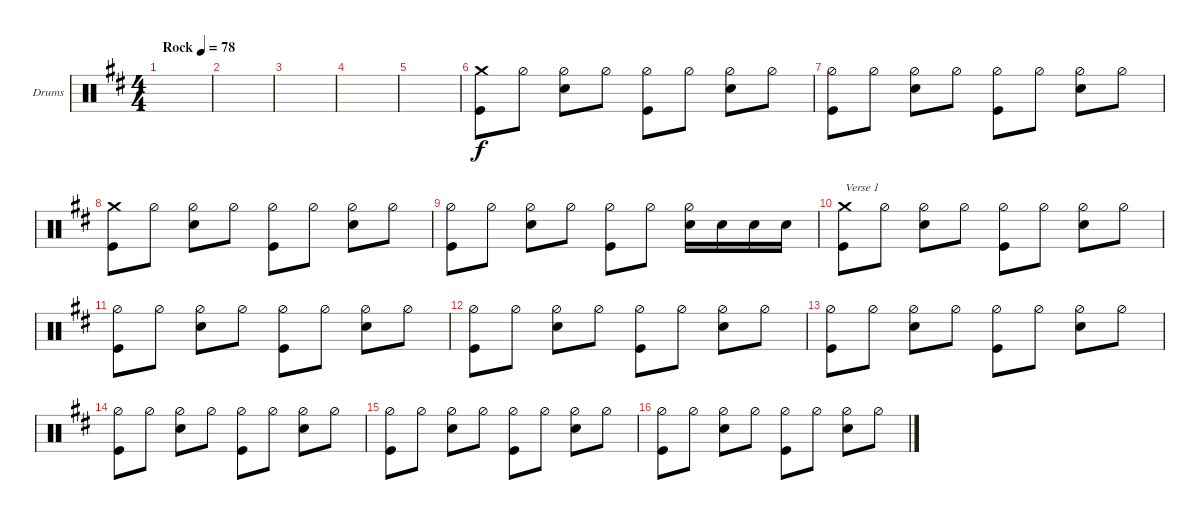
\defaultSystemsLayout 4
\bracketExtendMode groupsimilarinstruments
\firstSystemTrackNameOrientation horizontal
\otherSystemsTrackNameOrientation horizontal
\track ("Drums" "Drums") {instrument percussion}
\staff {score}
\articulation defaults
\ts (4 4)
\tempo (78 "Rock")
\clef neutral
\ks bminor
|
|
|
|
|
("Kick (hit)" "Crash medium (hit)").8 "Hi-Hat (half)".8 ("Hi-Hat (half)" "Snare (hit) 2").8 "Hi-Hat (half)".8 ("Hi-Hat (half)" "Kick (hit)").8 "Hi-Hat (half)".8 ("Hi-Hat (half)" "Snare (hit) 2").8 "Hi-Hat (half)".8 |
("Hi-Hat (half)" "Kick (hit)").8 "Hi-Hat (half)".8 ("Hi-Hat (half)" "Snare (hit) 2").8 "Hi-Hat (half)".8 ("Hi-Hat (half)" "Kick (hit)").8 "Hi-Hat (half)".8 ("Hi-Hat (half)" "Snare (hit) 2").8 "Hi-Hat (half)".8 |
("Kick (hit)" "Crash medium (hit)").8 "Hi-Hat (half)".8 ("Hi-Hat (half)" "Snare (hit) 2").8 "Hi-Hat (half)".8 ("Hi-Hat (half)" "Kick (hit)").8 "Hi-Hat (half)".8 ("Hi-Hat (half)" "Snare (hit) 2").8 "Hi-Hat (half)".8 |
("Hi-Hat (half)" "Kick (hit)").8 "Hi-Hat (half)".8 ("Hi-Hat (half)" "Snare (hit) 2").8 "Hi-Hat (half)".8 ("Hi-Hat (half)" "Kick (hit)").8 "Hi-Hat (half)".8 ("Hi-Hat (half)" "Snare (hit) 2").16 "Snare (hit) 2".16 "Snare (hit) 2".16 "Snare (hit) 2".16 |
("Kick (hit)" "Crash medium (hit)").8{txt "Verse 1"} "Hi-Hat (half)".8 ("Hi-Hat (half)" "Snare (hit) 2").8 "Hi-Hat (half)".8 ("Hi-Hat (half)" "Kick (hit)").8 "Hi-Hat (half)".8 ("Hi-Hat (half)" "Snare (hit) 2").8 "Hi-Hat (half)".8 |
("Hi-Hat (half)" "Kick (hit)").8 "Hi-Hat (half)".8 ("Hi-Hat (half)" "Snare (hit) 2").8 "Hi-Hat (half)".8 ("Hi-Hat (half)" "Kick (hit)").8 "Hi-Hat (half)".8 ("Hi-Hat (half)" "Snare (hit) 2").8 "Hi-Hat (half)".8 |
("Hi-Hat (half)" "Kick (hit)").8 "Hi-Hat (half)".8 ("Hi-Hat (half)" "Snare (hit) 2").8 "Hi-Hat (half)".8 ("Hi-Hat (half)" "Kick (hit)").8 "Hi-Hat (half)".8 ("Hi-Hat (half)" "Snare (hit) 2").8 "Hi-Hat (half)".8 |
("Hi-Hat (half)" "Kick (hit)").8 "Hi-Hat (half)".8 ("Hi-Hat (half)" "Snare (hit) 2").8 "Hi-Hat (half)".8 ("Hi-Hat (half)" "Kick (hit)").8 "Hi-Hat (half)".8 ("Hi-Hat (half)" "Snare (hit) 2").8 "Hi-Hat (half)".8 |
("Hi-Hat (half)" "Kick (hit)").8 "Hi-Hat (half)".8 ("Hi-Hat (half)" "Snare (hit) 2").8 "Hi-Hat (half)".8 ("Hi-Hat (half)" "Kick (hit)").8 "Hi-Hat (half)".8 ("Hi-Hat (half)" "Snare (hit) 2").8 "Hi-Hat (half)".8 |
("Hi-Hat (half)" "Kick (hit)").8 "Hi-Hat (half)".8 ("Hi-Hat (half)" "Snare (hit) 2").8 "Hi-Hat (half)".8 ("Hi-Hat (half)" "Kick (hit)").8 "Hi-Hat (half)".8 ("Hi-Hat (half)" "Snare (hit) 2").8 "Hi-Hat (half)".8 |
("Hi-Hat (half)" "Kick (hit)").8 "Hi-Hat (half)".8 ("Hi-Hat (half)" "Snare (hit) 2").8 "Hi-Hat (half)".8 ("Hi-Hat (half)" "Kick (hit)").8 "Hi-Hat (half)".8 ("Hi-Hat (half)" "Snare (hit) 2").8 "Hi-Hat (half)".8
